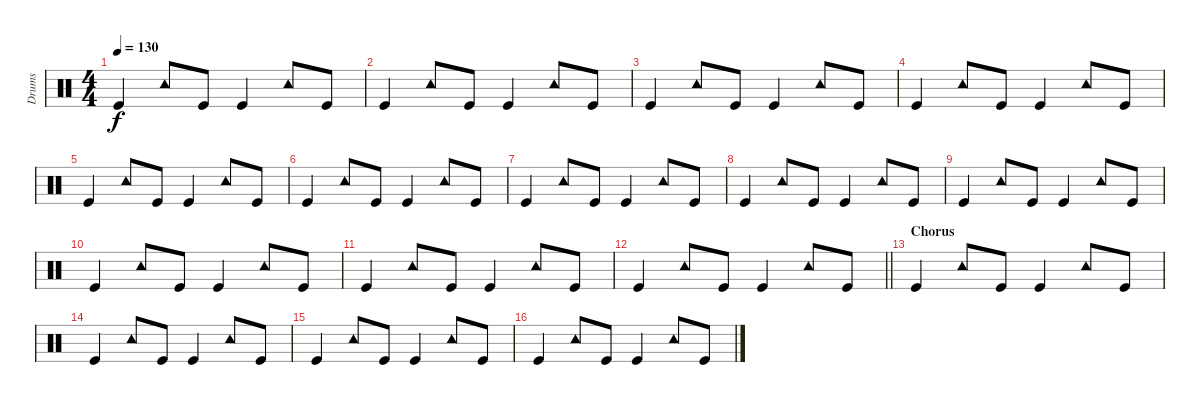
\track ("Drums" "Drums") {instrument percussion}
\staff {score}
\articulation defaults
\ts (4 4)
\tempo 130
\clef neutral
\ks c "Kick (hit)".4{dy f} "Tambourine (hit)".8 "Kick (hit)".8 "Kick (hit)".4 "Tambourine (hit)".8 "Kick (hit)".8
|
"Kick (hit)".4 "Tambourine (hit)".8 "Kick (hit)".8 "Kick (hit)".4 "Tambourine (hit)".8 "Kick (hit)".8 |
"Kick (hit)".4 "Tambourine (hit)".8 "Kick (hit)".8 "Kick (hit)".4 "Tambourine (hit)".8 "Kick (hit)".8 |
"Kick (hit)".4 "Tambourine (hit)".8 "Kick (hit)".8 "Kick (hit)".4 "Tambourine (hit)".8 "Kick (hit)".8 |
"Kick (hit)".4 "Tambourine (hit)".8 "Kick (hit)".8 "Kick (hit)".4 "Tambourine (hit)".8 "Kick (hit)".8 |
"Kick (hit)".4 "Tambourine (hit)".8 "Kick (hit)".8 "Kick (hit)".4 "Tambourine (hit)".8 "Kick (hit)".8 |
"Kick (hit)".4 "Tambourine (hit)".8 "Kick (hit)".8 "Kick (hit)".4 "Tambourine (hit)".8 "Kick (hit)".8 |
"Kick (hit)".4 "Tambourine (hit)".8 "Kick (hit)".8 "Kick (hit)".4 "Tambourine (hit)".8 "Kick (hit)".8 |
"Kick (hit)".4 "Tambourine (hit)".8 "Kick (hit)".8 "Kick (hit)".4 "Tambourine (hit)".8 "Kick (hit)".8 |
"Kick (hit)".4 "Tambourine (hit)".8 "Kick (hit)".8 "Kick (hit)".4 "Tambourine (hit)".8 "Kick (hit)".8 |
"Kick (hit)".4 "Tambourine (hit)".8 "Kick (hit)".8 "Kick (hit)".4 "Tambourine (hit)".8 "Kick (hit)".8 |
\barLineRight lightlight "Kick (hit)".4 "Tambourine (hit)".8 "Kick (hit)".8 "Kick (hit)".4 "Tambourine (hit)".8 "Kick (hit)".8
|
\section ("" "Chorus")
"Kick (hit)".4 "Tambourine (hit)".8 "Kick (hit)".8 "Kick (hit)".4 "Tambourine (hit)".8 "Kick (hit)".8 |
"Kick (hit)".4 "Tambourine (hit)".8 "Kick (hit)".8 "Kick (hit)".4 "Tambourine (hit)".8 "Kick (hit)".8 |
"Kick (hit)".4 "Tambourine (hit)".8 "Kick (hit)".8 "Kick (hit)".4 "Tambourine (hit)".8 "Kick (hit)".8 |
"Kick (hit)".4 "Tambourine (hit)".8 "Kick (hit)".8 "Kick (hit)".4 "Tambourine (hit)".8 "Kick (hit)".8
